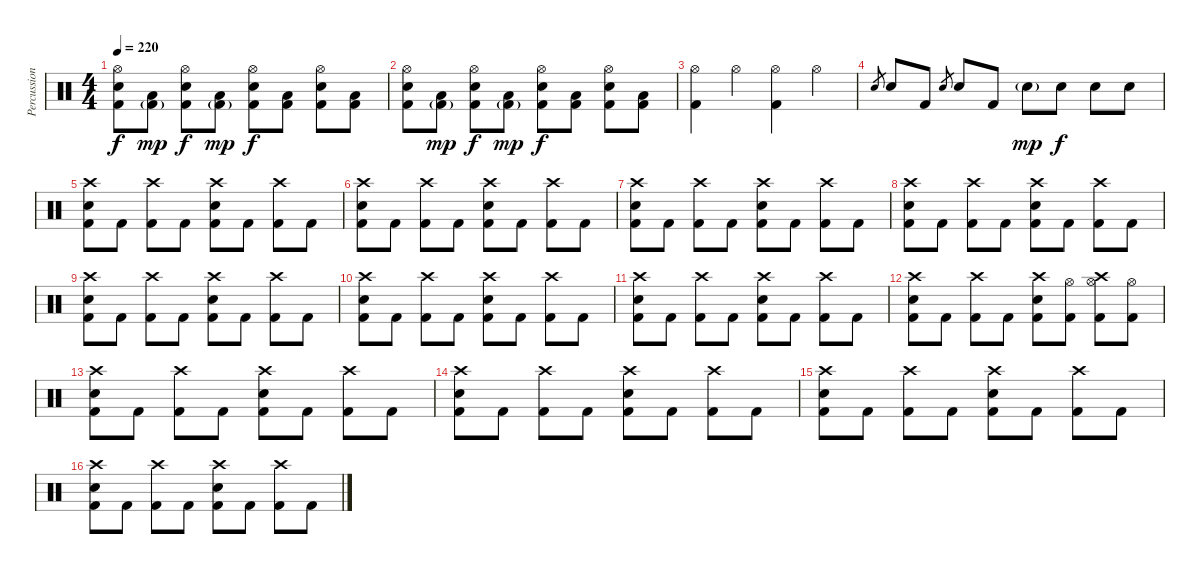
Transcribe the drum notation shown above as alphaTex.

\track ("Percussions" "Percussion") {instrument percussion}
\staff {score}
\articulation defaults
\ts (4 4)
\tempo 220
\clef neutral
\ks c
("Hi-Hat (open)" "Electric Snare (hit)" "Kick (hit) 2").8{dy f} ("Low Tom (hit)" "Kick (hit) 2"{g}).8{dy mp} ("Hi-Hat (open)" "Electric Snare (hit)" "Kick (hit) 2").8{dy f} ("Low Tom (hit)" "Kick (hit) 2"{g}).8{dy mp} ("Hi-Hat (open)" "Electric Snare (hit)" "Kick (hit) 2").8{dy f} ("Low Tom (hit)" "Kick (hit) 2").8 ("Hi-Hat (open)" "Electric Snare (hit)" "Kick (hit) 2").8 ("Low Tom (hit)" "Kick (hit) 2").8 |
("Hi-Hat (open)" "Electric Snare (hit)" "Kick (hit) 2").8 ("Low Tom (hit)" "Kick (hit) 2"{g}).8{dy mp} ("Hi-Hat (open)" "Electric Snare (hit)" "Kick (hit) 2").8{dy f} ("Low Tom (hit)" "Kick (hit) 2"{g}).8{dy mp} ("Hi-Hat (open)" "Electric Snare (hit)" "Kick (hit) 2").8{dy f} ("Low Tom (hit)" "Kick (hit) 2").8 ("Hi-Hat (open)" "Electric Snare (hit)" "Kick (hit) 2").8 ("Low Tom (hit)" "Kick (hit) 2").8 |
("Hi-Hat (open)" "Kick (hit) 2").4 "Hi-Hat (open)".4 ("Hi-Hat (open)" "Kick (hit) 2").4 "Hi-Hat (open)".4 |
"Electric Snare (hit)".8{gr} "Electric Snare (hit)".8 "Kick (hit) 2".8 "Electric Snare (hit)".8{gr} "Electric Snare (hit)".8 "Kick (hit) 2".8 "Electric Snare (hit)"{g}.8{dy mp} "Electric Snare (hit)".8{dy f} "Electric Snare (hit)".8 "Electric Snare (hit)".8 |
("Crash high (hit)" "Electric Snare (hit)" "Kick (hit) 2").8 "Kick (hit) 2".8 ("Crash high (hit)" "Kick (hit) 2").8 "Kick (hit) 2".8 ("Crash high (hit)" "Electric Snare (hit)" "Kick (hit) 2").8 "Kick (hit) 2".8 ("Crash high (hit)" "Kick (hit) 2").8 "Kick (hit) 2".8 |
("Crash high (hit)" "Electric Snare (hit)" "Kick (hit) 2").8 "Kick (hit) 2".8 ("Crash high (hit)" "Kick (hit) 2").8 "Kick (hit) 2".8 ("Crash high (hit)" "Electric Snare (hit)" "Kick (hit) 2").8 "Kick (hit) 2".8 ("Crash high (hit)" "Kick (hit) 2").8 "Kick (hit) 2".8 |
("Crash high (hit)" "Electric Snare (hit)" "Kick (hit) 2").8 "Kick (hit) 2".8 ("Crash high (hit)" "Kick (hit) 2").8 "Kick (hit) 2".8 ("Crash high (hit)" "Electric Snare (hit)" "Kick (hit) 2").8 "Kick (hit) 2".8 ("Crash high (hit)" "Kick (hit) 2").8 "Kick (hit) 2".8 |
("Crash high (hit)" "Electric Snare (hit)" "Kick (hit) 2").8 "Kick (hit) 2".8 ("Crash high (hit)" "Kick (hit) 2").8 "Kick (hit) 2".8 ("Crash high (hit)" "Electric Snare (hit)" "Kick (hit) 2").8 "Kick (hit) 2".8 ("Crash high (hit)" "Kick (hit) 2").8 "Kick (hit) 2".8 |
("Crash high (hit)" "Electric Snare (hit)" "Kick (hit) 2").8 "Kick (hit) 2".8 ("Crash high (hit)" "Kick (hit) 2").8 "Kick (hit) 2".8 ("Crash high (hit)" "Electric Snare (hit)" "Kick (hit) 2").8 "Kick (hit) 2".8 ("Crash high (hit)" "Kick (hit) 2").8 "Kick (hit) 2".8 |
("Crash high (hit)" "Electric Snare (hit)" "Kick (hit) 2").8 "Kick (hit) 2".8 ("Crash high (hit)" "Kick (hit) 2").8 "Kick (hit) 2".8 ("Crash high (hit)" "Electric Snare (hit)" "Kick (hit) 2").8 "Kick (hit) 2".8 ("Crash high (hit)" "Kick (hit) 2").8 "Kick (hit) 2".8 |
("Crash high (hit)" "Electric Snare (hit)" "Kick (hit) 2").8 "Kick (hit) 2".8 ("Crash high (hit)" "Kick (hit) 2").8 "Kick (hit) 2".8 ("Crash high (hit)" "Electric Snare (hit)" "Kick (hit) 2").8 "Kick (hit) 2".8 ("Crash high (hit)" "Kick (hit) 2").8 "Kick (hit) 2".8 |
("Crash high (hit)" "Electric Snare (hit)" "Kick (hit) 2").8 "Kick (hit) 2".8 ("Crash high (hit)" "Kick (hit) 2").8 "Kick (hit) 2".8 ("Crash high (hit)" "Electric Snare (hit)" "Kick (hit) 2").8 ("Hi-Hat (open)" "Kick (hit) 2").8 ("Crash high (hit)" "Hi-Hat (open)" "Kick (hit) 2").8 ("Hi-Hat (open)" "Kick (hit) 2").8 |
("Crash high (hit)" "Electric Snare (hit)" "Kick (hit) 2").8 "Kick (hit) 2".8 ("Crash high (hit)" "Kick (hit) 2").8 "Kick (hit) 2".8 ("Crash high (hit)" "Electric Snare (hit)" "Kick (hit) 2").8 "Kick (hit) 2".8 ("Crash high (hit)" "Kick (hit) 2").8 "Kick (hit) 2".8 |
("Crash high (hit)" "Electric Snare (hit)" "Kick (hit) 2").8 "Kick (hit) 2".8 ("Crash high (hit)" "Kick (hit) 2").8 "Kick (hit) 2".8 ("Crash high (hit)" "Electric Snare (hit)" "Kick (hit) 2").8 "Kick (hit) 2".8 ("Crash high (hit)" "Kick (hit) 2").8 "Kick (hit) 2".8 |
("Crash high (hit)" "Electric Snare (hit)" "Kick (hit) 2").8 "Kick (hit) 2".8 ("Crash high (hit)" "Kick (hit) 2").8 "Kick (hit) 2".8 ("Crash high (hit)" "Electric Snare (hit)" "Kick (hit) 2").8 "Kick (hit) 2".8 ("Crash high (hit)" "Kick (hit) 2").8 "Kick (hit) 2".8 |
("Crash high (hit)" "Electric Snare (hit)" "Kick (hit) 2").8 "Kick (hit) 2".8 ("Crash high (hit)" "Kick (hit) 2").8 "Kick (hit) 2".8 ("Crash high (hit)" "Electric Snare (hit)" "Kick (hit) 2").8 "Kick (hit) 2".8 ("Crash high (hit)" "Kick (hit) 2").8 "Kick (hit) 2".8
